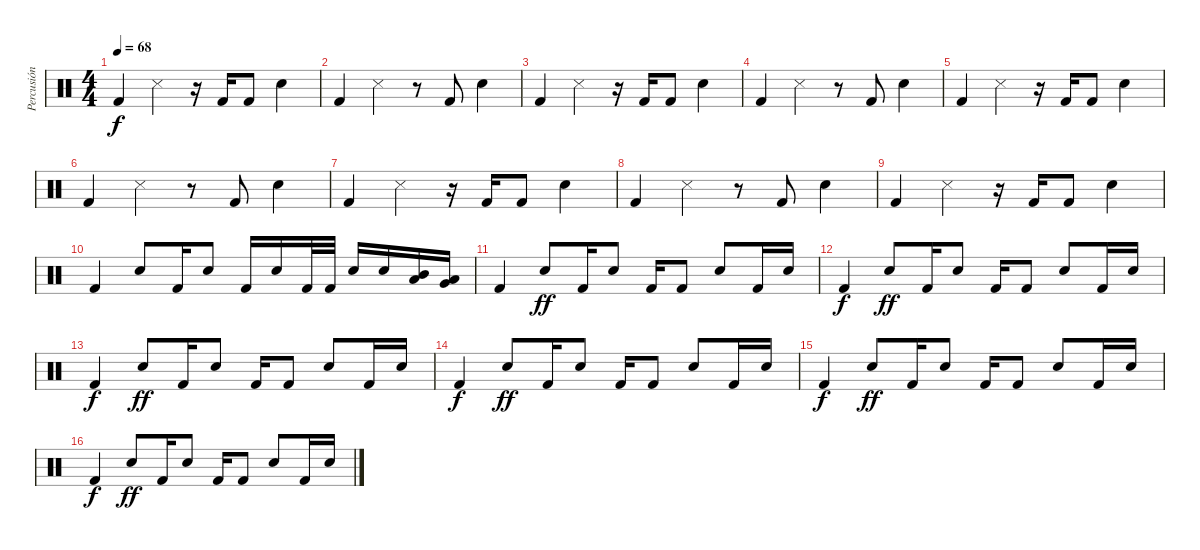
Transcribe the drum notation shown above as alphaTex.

\track ("Percusión" "Percusión") {instrument percussion}
\staff {score}
\articulation defaults
\ts (4 4)
\tempo 68
\clef neutral
\ks c "Kick (hit) 2".4{dy f} "Snare (side stick) 3".4
r.16 "Kick (hit) 2".16 "Kick (hit) 2".8 "Snare (hit) 2".4 |
"Kick (hit) 2".4 "Snare (side stick) 3".4 r.8 "Kick (hit) 2".8 "Snare (hit) 2".4 |
"Kick (hit) 2".4 "Snare (side stick) 3".4 r.16 "Kick (hit) 2".16 "Kick (hit) 2".8 "Snare (hit) 2".4 |
"Kick (hit) 2".4 "Snare (side stick) 3".4 r.8 "Kick (hit) 2".8 "Snare (hit) 2".4 |
"Kick (hit) 2".4 "Snare (side stick) 3".4 r.16 "Kick (hit) 2".16 "Kick (hit) 2".8 "Snare (hit) 2".4 |
"Kick (hit) 2".4 "Snare (side stick) 3".4 r.8 "Kick (hit) 2".8 "Snare (hit) 2".4 |
"Kick (hit) 2".4 "Snare (side stick) 3".4 r.16 "Kick (hit) 2".16 "Kick (hit) 2".8 "Snare (hit) 2".4 |
"Kick (hit) 2".4 "Snare (side stick) 3".4 r.8 "Kick (hit) 2".8 "Snare (hit) 2".4 |
"Kick (hit) 2".4 "Snare (side stick) 3".4 r.16 "Kick (hit) 2".16 "Kick (hit) 2".8 "Snare (hit) 2".4 |
"Kick (hit) 2".4 "Snare (hit) 2".8 "Kick (hit) 2".16 "Snare (hit) 2".8 "Kick (hit) 2".16 "Snare (hit) 2".16 "Kick (hit) 2".32 "Kick (hit) 2".32 "Snare (hit) 2".16 "Snare (hit) 2".16 ("Mid Tom (hit)" "Low Tom (hit)").16 ("Low Tom (hit)" "Very Low Tom (hit)").16 |
"Kick (hit) 2".4 "Snare (hit) 2".8{dy ff} "Kick (hit) 2".16 "Snare (hit) 2".8 "Kick (hit) 2".16 "Kick (hit) 2".8 "Snare (hit) 2".8 "Kick (hit) 2".16 "Snare (hit) 2".16 |
"Kick (hit) 2".4{dy f} "Snare (hit) 2".8{dy ff} "Kick (hit) 2".16 "Snare (hit) 2".8 "Kick (hit) 2".16 "Kick (hit) 2".8 "Snare (hit) 2".8 "Kick (hit) 2".16 "Snare (hit) 2".16 |
"Kick (hit) 2".4{dy f} "Snare (hit) 2".8{dy ff} "Kick (hit) 2".16 "Snare (hit) 2".8 "Kick (hit) 2".16 "Kick (hit) 2".8 "Snare (hit) 2".8 "Kick (hit) 2".16 "Snare (hit) 2".16 |
"Kick (hit) 2".4{dy f} "Snare (hit) 2".8{dy ff} "Kick (hit) 2".16 "Snare (hit) 2".8 "Kick (hit) 2".16 "Kick (hit) 2".8 "Snare (hit) 2".8 "Kick (hit) 2".16 "Snare (hit) 2".16 |
"Kick (hit) 2".4{dy f} "Snare (hit) 2".8{dy ff} "Kick (hit) 2".16 "Snare (hit) 2".8 "Kick (hit) 2".16 "Kick (hit) 2".8 "Snare (hit) 2".8 "Kick (hit) 2".16 "Snare (hit) 2".16 |
"Kick (hit) 2".4{dy f} "Snare (hit) 2".8{dy ff} "Kick (hit) 2".16 "Snare (hit) 2".8 "Kick (hit) 2".16 "Kick (hit) 2".8 "Snare (hit) 2".8 "Kick (hit) 2".16 "Snare (hit) 2".16
